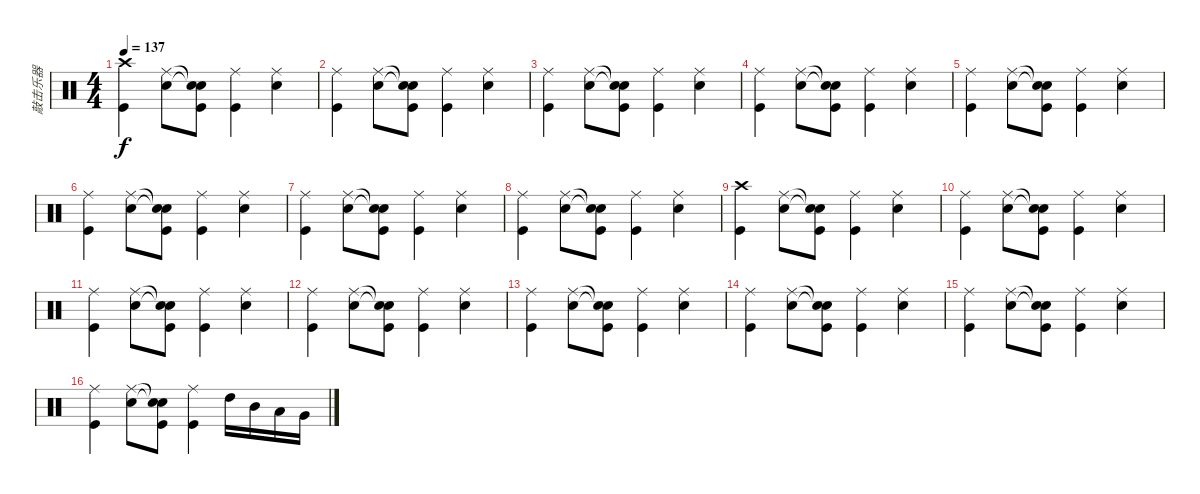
\track ("敲击乐器" "敲击乐器") {instrument percussion}
\staff {score}
\articulation defaults
\ts (4 4)
\tempo 137
\clef neutral
\ks c
("Crash high (hit)" "Kick (hit)").4{dy f} ("Ride (middle)" "Snare (hit) 2").8 ("Snare (hit)"{t} "Snare (hit)"{t} "Kick (hit)").8 ("Ride (middle)" "Kick (hit)").4 ("Ride (middle)" "Snare (hit) 2").4 |
("Ride (middle)" "Kick (hit)").4 ("Ride (middle)" "Snare (hit) 2").8 ("Snare (hit)"{t} "Snare (hit)"{t} "Kick (hit)").8 ("Ride (middle)" "Kick (hit)").4 ("Ride (middle)" "Snare (hit) 2").4 |
("Ride (middle)" "Kick (hit)").4 ("Ride (middle)" "Snare (hit) 2").8 ("Snare (hit)"{t} "Snare (hit)"{t} "Kick (hit)").8 ("Ride (middle)" "Kick (hit)").4 ("Ride (middle)" "Snare (hit) 2").4 |
("Ride (middle)" "Kick (hit)").4 ("Ride (middle)" "Snare (hit) 2").8 ("Snare (hit)"{t} "Snare (hit)"{t} "Kick (hit)").8 ("Ride (middle)" "Kick (hit)").4 ("Ride (middle)" "Snare (hit) 2").4 |
("Ride (middle)" "Kick (hit)").4 ("Ride (middle)" "Snare (hit) 2").8 ("Snare (hit)"{t} "Snare (hit)"{t} "Kick (hit)").8 ("Ride (middle)" "Kick (hit)").4 ("Ride (middle)" "Snare (hit) 2").4 |
("Ride (middle)" "Kick (hit)").4 ("Ride (middle)" "Snare (hit) 2").8 ("Snare (hit)"{t} "Snare (hit)"{t} "Kick (hit)").8 ("Ride (middle)" "Kick (hit)").4 ("Ride (middle)" "Snare (hit) 2").4 |
("Ride (middle)" "Kick (hit)").4 ("Ride (middle)" "Snare (hit) 2").8 ("Snare (hit)"{t} "Snare (hit)"{t} "Kick (hit)").8 ("Ride (middle)" "Kick (hit)").4 ("Ride (middle)" "Snare (hit) 2").4 |
("Ride (middle)" "Kick (hit)").4 ("Ride (middle)" "Snare (hit) 2").8 ("Snare (hit)"{t} "Snare (hit)"{t} "Kick (hit)").8 ("Ride (middle)" "Kick (hit)").4 ("Ride (middle)" "Snare (hit) 2").4 |
("Crash high (hit)" "Kick (hit)").4 ("Ride (middle)" "Snare (hit) 2").8 ("Snare (hit)"{t} "Snare (hit)"{t} "Kick (hit)").8 ("Ride (middle)" "Kick (hit)").4 ("Ride (middle)" "Snare (hit) 2").4 |
("Ride (middle)" "Kick (hit)").4 ("Ride (middle)" "Snare (hit) 2").8 ("Snare (hit)"{t} "Snare (hit)"{t} "Kick (hit)").8 ("Ride (middle)" "Kick (hit)").4 ("Ride (middle)" "Snare (hit) 2").4 |
("Ride (middle)" "Kick (hit)").4 ("Ride (middle)" "Snare (hit) 2").8 ("Snare (hit)"{t} "Snare (hit)"{t} "Kick (hit)").8 ("Ride (middle)" "Kick (hit)").4 ("Ride (middle)" "Snare (hit) 2").4 |
("Ride (middle)" "Kick (hit)").4 ("Ride (middle)" "Snare (hit) 2").8 ("Snare (hit)"{t} "Snare (hit)"{t} "Kick (hit)").8 ("Ride (middle)" "Kick (hit)").4 ("Ride (middle)" "Snare (hit) 2").4 |
("Ride (middle)" "Kick (hit)").4 ("Ride (middle)" "Snare (hit) 2").8 ("Snare (hit)"{t} "Snare (hit)"{t} "Kick (hit)").8 ("Ride (middle)" "Kick (hit)").4 ("Ride (middle)" "Snare (hit) 2").4 |
("Ride (middle)" "Kick (hit)").4 ("Ride (middle)" "Snare (hit) 2").8 ("Snare (hit)"{t} "Snare (hit)"{t} "Kick (hit)").8 ("Ride (middle)" "Kick (hit)").4 ("Ride (middle)" "Snare (hit) 2").4 |
("Ride (middle)" "Kick (hit)").4 ("Ride (middle)" "Snare (hit) 2").8 ("Snare (hit)"{t} "Snare (hit)"{t} "Kick (hit)").8 ("Ride (middle)" "Kick (hit)").4 ("Ride (middle)" "Snare (hit) 2").4 |
("Ride (middle)" "Kick (hit)").4 ("Ride (middle)" "Snare (hit) 2").8 ("Snare (hit)"{t} "Snare (hit)"{t} "Kick (hit)").8 ("Ride (middle)" "Kick (hit)").4 "High Tom (hit)".16 "Mid Tom (hit)".16 "Low Tom (hit)".16 "Very Low Tom (hit)".16
